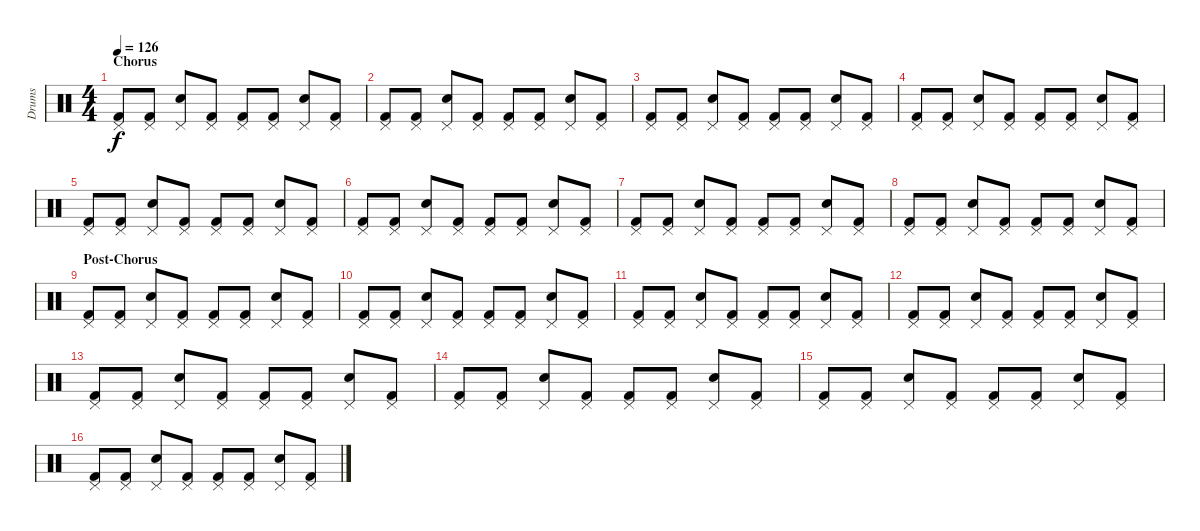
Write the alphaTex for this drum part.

\track ("Drums" "Drums") {instrument percussion}
\staff {score}
\articulation defaults
\ts (4 4)
\section ("" "Chorus")
\tempo 126
\clef neutral
\ks c
("Kick (hit) 2" "Pedal Hi-Hat (hit)").8{dy f} ("Kick (hit) 2" "Pedal Hi-Hat (hit)").8 ("Snare (hit) 2" "Pedal Hi-Hat (hit)").8 ("Kick (hit) 2" "Pedal Hi-Hat (hit)").8 ("Kick (hit) 2" "Pedal Hi-Hat (hit)").8 ("Kick (hit) 2" "Pedal Hi-Hat (hit)").8 ("Snare (hit) 2" "Pedal Hi-Hat (hit)").8 ("Kick (hit) 2" "Pedal Hi-Hat (hit)").8 |
("Kick (hit) 2" "Pedal Hi-Hat (hit)").8 ("Kick (hit) 2" "Pedal Hi-Hat (hit)").8 ("Snare (hit) 2" "Pedal Hi-Hat (hit)").8 ("Kick (hit) 2" "Pedal Hi-Hat (hit)").8 ("Kick (hit) 2" "Pedal Hi-Hat (hit)").8 ("Kick (hit) 2" "Pedal Hi-Hat (hit)").8 ("Snare (hit) 2" "Pedal Hi-Hat (hit)").8 ("Kick (hit) 2" "Pedal Hi-Hat (hit)").8 |
("Kick (hit) 2" "Pedal Hi-Hat (hit)").8 ("Kick (hit) 2" "Pedal Hi-Hat (hit)").8 ("Snare (hit) 2" "Pedal Hi-Hat (hit)").8 ("Kick (hit) 2" "Pedal Hi-Hat (hit)").8 ("Kick (hit) 2" "Pedal Hi-Hat (hit)").8 ("Kick (hit) 2" "Pedal Hi-Hat (hit)").8 ("Snare (hit) 2" "Pedal Hi-Hat (hit)").8 ("Kick (hit) 2" "Pedal Hi-Hat (hit)").8 |
("Kick (hit) 2" "Pedal Hi-Hat (hit)").8 ("Kick (hit) 2" "Pedal Hi-Hat (hit)").8 ("Snare (hit) 2" "Pedal Hi-Hat (hit)").8 ("Kick (hit) 2" "Pedal Hi-Hat (hit)").8 ("Kick (hit) 2" "Pedal Hi-Hat (hit)").8 ("Kick (hit) 2" "Pedal Hi-Hat (hit)").8 ("Snare (hit) 2" "Pedal Hi-Hat (hit)").8 ("Kick (hit) 2" "Pedal Hi-Hat (hit)").8 |
("Kick (hit) 2" "Pedal Hi-Hat (hit)").8 ("Kick (hit) 2" "Pedal Hi-Hat (hit)").8 ("Snare (hit) 2" "Pedal Hi-Hat (hit)").8 ("Kick (hit) 2" "Pedal Hi-Hat (hit)").8 ("Kick (hit) 2" "Pedal Hi-Hat (hit)").8 ("Kick (hit) 2" "Pedal Hi-Hat (hit)").8 ("Snare (hit) 2" "Pedal Hi-Hat (hit)").8 ("Kick (hit) 2" "Pedal Hi-Hat (hit)").8 |
("Kick (hit) 2" "Pedal Hi-Hat (hit)").8 ("Kick (hit) 2" "Pedal Hi-Hat (hit)").8 ("Snare (hit) 2" "Pedal Hi-Hat (hit)").8 ("Kick (hit) 2" "Pedal Hi-Hat (hit)").8 ("Kick (hit) 2" "Pedal Hi-Hat (hit)").8 ("Kick (hit) 2" "Pedal Hi-Hat (hit)").8 ("Snare (hit) 2" "Pedal Hi-Hat (hit)").8 ("Kick (hit) 2" "Pedal Hi-Hat (hit)").8 |
("Kick (hit) 2" "Pedal Hi-Hat (hit)").8 ("Kick (hit) 2" "Pedal Hi-Hat (hit)").8 ("Snare (hit) 2" "Pedal Hi-Hat (hit)").8 ("Kick (hit) 2" "Pedal Hi-Hat (hit)").8 ("Kick (hit) 2" "Pedal Hi-Hat (hit)").8 ("Kick (hit) 2" "Pedal Hi-Hat (hit)").8 ("Snare (hit) 2" "Pedal Hi-Hat (hit)").8 ("Kick (hit) 2" "Pedal Hi-Hat (hit)").8 |
("Kick (hit) 2" "Pedal Hi-Hat (hit)").8 ("Kick (hit) 2" "Pedal Hi-Hat (hit)").8 ("Snare (hit) 2" "Pedal Hi-Hat (hit)").8 ("Kick (hit) 2" "Pedal Hi-Hat (hit)").8 ("Kick (hit) 2" "Pedal Hi-Hat (hit)").8 ("Kick (hit) 2" "Pedal Hi-Hat (hit)").8 ("Snare (hit) 2" "Pedal Hi-Hat (hit)").8 ("Kick (hit) 2" "Pedal Hi-Hat (hit)").8 |
\section ("" "Post-Chorus")
("Kick (hit) 2" "Pedal Hi-Hat (hit)").8 ("Kick (hit) 2" "Pedal Hi-Hat (hit)").8 ("Snare (hit) 2" "Pedal Hi-Hat (hit)").8 ("Kick (hit) 2" "Pedal Hi-Hat (hit)").8 ("Kick (hit) 2" "Pedal Hi-Hat (hit)").8 ("Kick (hit) 2" "Pedal Hi-Hat (hit)").8 ("Snare (hit) 2" "Pedal Hi-Hat (hit)").8 ("Kick (hit) 2" "Pedal Hi-Hat (hit)").8 |
("Kick (hit) 2" "Pedal Hi-Hat (hit)").8 ("Kick (hit) 2" "Pedal Hi-Hat (hit)").8 ("Snare (hit) 2" "Pedal Hi-Hat (hit)").8 ("Kick (hit) 2" "Pedal Hi-Hat (hit)").8 ("Kick (hit) 2" "Pedal Hi-Hat (hit)").8 ("Kick (hit) 2" "Pedal Hi-Hat (hit)").8 ("Snare (hit) 2" "Pedal Hi-Hat (hit)").8 ("Kick (hit) 2" "Pedal Hi-Hat (hit)").8 |
("Kick (hit) 2" "Pedal Hi-Hat (hit)").8 ("Kick (hit) 2" "Pedal Hi-Hat (hit)").8 ("Snare (hit) 2" "Pedal Hi-Hat (hit)").8 ("Kick (hit) 2" "Pedal Hi-Hat (hit)").8 ("Kick (hit) 2" "Pedal Hi-Hat (hit)").8 ("Kick (hit) 2" "Pedal Hi-Hat (hit)").8 ("Snare (hit) 2" "Pedal Hi-Hat (hit)").8 ("Kick (hit) 2" "Pedal Hi-Hat (hit)").8 |
("Kick (hit) 2" "Pedal Hi-Hat (hit)").8 ("Kick (hit) 2" "Pedal Hi-Hat (hit)").8 ("Snare (hit) 2" "Pedal Hi-Hat (hit)").8 ("Kick (hit) 2" "Pedal Hi-Hat (hit)").8 ("Kick (hit) 2" "Pedal Hi-Hat (hit)").8 ("Kick (hit) 2" "Pedal Hi-Hat (hit)").8 ("Snare (hit) 2" "Pedal Hi-Hat (hit)").8 ("Kick (hit) 2" "Pedal Hi-Hat (hit)").8 |
("Kick (hit) 2" "Pedal Hi-Hat (hit)").8 ("Kick (hit) 2" "Pedal Hi-Hat (hit)").8 ("Snare (hit) 2" "Pedal Hi-Hat (hit)").8 ("Kick (hit) 2" "Pedal Hi-Hat (hit)").8 ("Kick (hit) 2" "Pedal Hi-Hat (hit)").8 ("Kick (hit) 2" "Pedal Hi-Hat (hit)").8 ("Snare (hit) 2" "Pedal Hi-Hat (hit)").8 ("Kick (hit) 2" "Pedal Hi-Hat (hit)").8 |
("Kick (hit) 2" "Pedal Hi-Hat (hit)").8 ("Kick (hit) 2" "Pedal Hi-Hat (hit)").8 ("Snare (hit) 2" "Pedal Hi-Hat (hit)").8 ("Kick (hit) 2" "Pedal Hi-Hat (hit)").8 ("Kick (hit) 2" "Pedal Hi-Hat (hit)").8 ("Kick (hit) 2" "Pedal Hi-Hat (hit)").8 ("Snare (hit) 2" "Pedal Hi-Hat (hit)").8 ("Kick (hit) 2" "Pedal Hi-Hat (hit)").8 |
("Kick (hit) 2" "Pedal Hi-Hat (hit)").8 ("Kick (hit) 2" "Pedal Hi-Hat (hit)").8 ("Snare (hit) 2" "Pedal Hi-Hat (hit)").8 ("Kick (hit) 2" "Pedal Hi-Hat (hit)").8 ("Kick (hit) 2" "Pedal Hi-Hat (hit)").8 ("Kick (hit) 2" "Pedal Hi-Hat (hit)").8 ("Snare (hit) 2" "Pedal Hi-Hat (hit)").8 ("Kick (hit) 2" "Pedal Hi-Hat (hit)").8 |
("Kick (hit) 2" "Pedal Hi-Hat (hit)").8 ("Kick (hit) 2" "Pedal Hi-Hat (hit)").8 ("Snare (hit) 2" "Pedal Hi-Hat (hit)").8 ("Kick (hit) 2" "Pedal Hi-Hat (hit)").8 ("Kick (hit) 2" "Pedal Hi-Hat (hit)").8 ("Kick (hit) 2" "Pedal Hi-Hat (hit)").8 ("Snare (hit) 2" "Pedal Hi-Hat (hit)").8 ("Kick (hit) 2" "Pedal Hi-Hat (hit)").8
